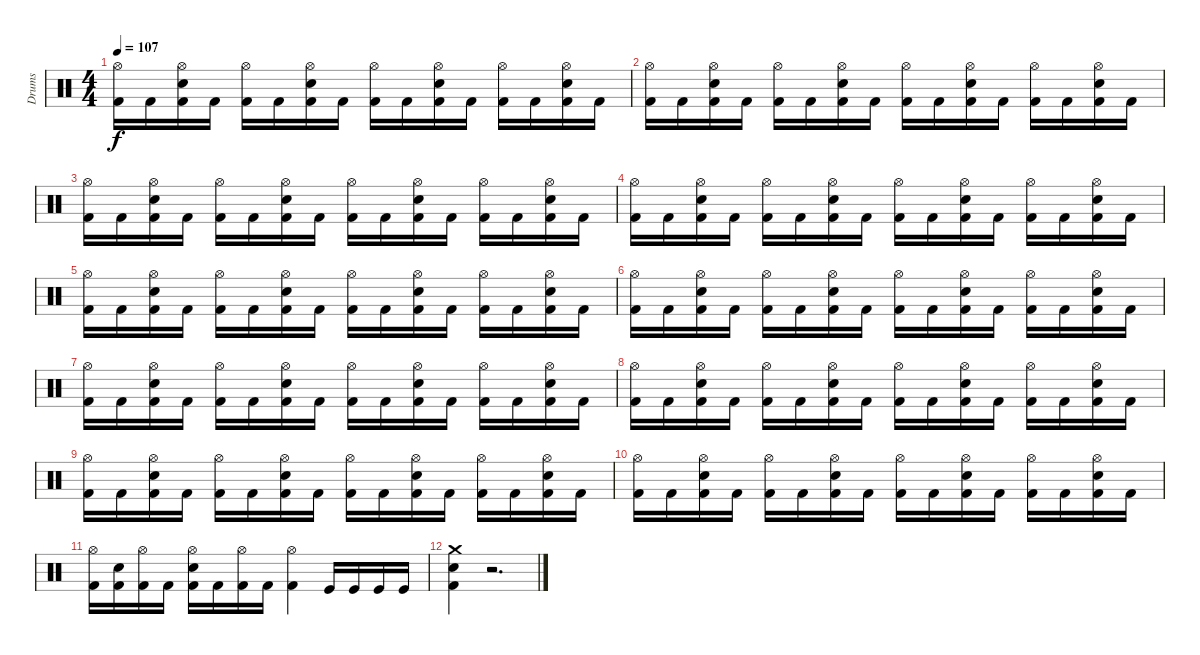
\track ("Drums" "Drums") {instrument percussion}
\staff {score}
\articulation defaults
\ts (4 4)
\tempo 107
\clef neutral
\ks c
("Hi-Hat (open)" "Kick (hit) 2").16{dy f} "Kick (hit) 2".16 ("Hi-Hat (open)" "Snare (hit) 2" "Kick (hit) 2").16 "Kick (hit) 2".16 ("Hi-Hat (open)" "Kick (hit) 2").16 "Kick (hit) 2".16 ("Hi-Hat (open)" "Snare (hit) 2" "Kick (hit) 2").16 "Kick (hit) 2".16 ("Hi-Hat (open)" "Kick (hit) 2").16 "Kick (hit) 2".16 ("Hi-Hat (open)" "Snare (hit) 2" "Kick (hit) 2").16 "Kick (hit) 2".16 ("Hi-Hat (open)" "Kick (hit) 2").16 "Kick (hit) 2".16 ("Hi-Hat (open)" "Snare (hit) 2" "Kick (hit) 2").16 "Kick (hit) 2".16 |
("Hi-Hat (open)" "Kick (hit) 2").16 "Kick (hit) 2".16 ("Hi-Hat (open)" "Snare (hit) 2" "Kick (hit) 2").16 "Kick (hit) 2".16 ("Hi-Hat (open)" "Kick (hit) 2").16 "Kick (hit) 2".16 ("Hi-Hat (open)" "Snare (hit) 2" "Kick (hit) 2").16 "Kick (hit) 2".16 ("Hi-Hat (open)" "Kick (hit) 2").16 "Kick (hit) 2".16 ("Hi-Hat (open)" "Snare (hit) 2" "Kick (hit) 2").16 "Kick (hit) 2".16 ("Hi-Hat (open)" "Kick (hit) 2").16 "Kick (hit) 2".16 ("Hi-Hat (open)" "Snare (hit) 2" "Kick (hit) 2").16 "Kick (hit) 2".16 |
("Hi-Hat (open)" "Kick (hit) 2").16 "Kick (hit) 2".16 ("Hi-Hat (open)" "Snare (hit) 2" "Kick (hit) 2").16 "Kick (hit) 2".16 ("Hi-Hat (open)" "Kick (hit) 2").16 "Kick (hit) 2".16 ("Hi-Hat (open)" "Snare (hit) 2" "Kick (hit) 2").16 "Kick (hit) 2".16 ("Hi-Hat (open)" "Kick (hit) 2").16 "Kick (hit) 2".16 ("Hi-Hat (open)" "Snare (hit) 2" "Kick (hit) 2").16 "Kick (hit) 2".16 ("Hi-Hat (open)" "Kick (hit) 2").16 "Kick (hit) 2".16 ("Hi-Hat (open)" "Snare (hit) 2" "Kick (hit) 2").16 "Kick (hit) 2".16 |
("Hi-Hat (open)" "Kick (hit) 2").16 "Kick (hit) 2".16 ("Hi-Hat (open)" "Snare (hit) 2" "Kick (hit) 2").16 "Kick (hit) 2".16 ("Hi-Hat (open)" "Kick (hit) 2").16 "Kick (hit) 2".16 ("Hi-Hat (open)" "Snare (hit) 2" "Kick (hit) 2").16 "Kick (hit) 2".16 ("Hi-Hat (open)" "Kick (hit) 2").16 "Kick (hit) 2".16 ("Hi-Hat (open)" "Snare (hit) 2" "Kick (hit) 2").16 "Kick (hit) 2".16 ("Hi-Hat (open)" "Kick (hit) 2").16 "Kick (hit) 2".16 ("Hi-Hat (open)" "Snare (hit) 2" "Kick (hit) 2").16 "Kick (hit) 2".16 |
("Hi-Hat (open)" "Kick (hit) 2").16 "Kick (hit) 2".16 ("Hi-Hat (open)" "Snare (hit) 2" "Kick (hit) 2").16 "Kick (hit) 2".16 ("Hi-Hat (open)" "Kick (hit) 2").16 "Kick (hit) 2".16 ("Hi-Hat (open)" "Snare (hit) 2" "Kick (hit) 2").16 "Kick (hit) 2".16 ("Hi-Hat (open)" "Kick (hit) 2").16 "Kick (hit) 2".16 ("Hi-Hat (open)" "Snare (hit) 2" "Kick (hit) 2").16 "Kick (hit) 2".16 ("Hi-Hat (open)" "Kick (hit) 2").16 "Kick (hit) 2".16 ("Hi-Hat (open)" "Snare (hit) 2" "Kick (hit) 2").16 "Kick (hit) 2".16 |
("Hi-Hat (open)" "Kick (hit) 2").16 "Kick (hit) 2".16 ("Hi-Hat (open)" "Snare (hit) 2" "Kick (hit) 2").16 "Kick (hit) 2".16 ("Hi-Hat (open)" "Kick (hit) 2").16 "Kick (hit) 2".16 ("Hi-Hat (open)" "Snare (hit) 2" "Kick (hit) 2").16 "Kick (hit) 2".16 ("Hi-Hat (open)" "Kick (hit) 2").16 "Kick (hit) 2".16 ("Hi-Hat (open)" "Snare (hit) 2" "Kick (hit) 2").16 "Kick (hit) 2".16 ("Hi-Hat (open)" "Kick (hit) 2").16 "Kick (hit) 2".16 ("Hi-Hat (open)" "Snare (hit) 2" "Kick (hit) 2").16 "Kick (hit) 2".16 |
("Hi-Hat (open)" "Kick (hit) 2").16 "Kick (hit) 2".16 ("Hi-Hat (open)" "Snare (hit) 2" "Kick (hit) 2").16 "Kick (hit) 2".16 ("Hi-Hat (open)" "Kick (hit) 2").16 "Kick (hit) 2".16 ("Hi-Hat (open)" "Snare (hit) 2" "Kick (hit) 2").16 "Kick (hit) 2".16 ("Hi-Hat (open)" "Kick (hit) 2").16 "Kick (hit) 2".16 ("Hi-Hat (open)" "Snare (hit) 2" "Kick (hit) 2").16 "Kick (hit) 2".16 ("Hi-Hat (open)" "Kick (hit) 2").16 "Kick (hit) 2".16 ("Hi-Hat (open)" "Snare (hit) 2" "Kick (hit) 2").16 "Kick (hit) 2".16 |
("Hi-Hat (open)" "Kick (hit) 2").16 "Kick (hit) 2".16 ("Hi-Hat (open)" "Snare (hit) 2" "Kick (hit) 2").16 "Kick (hit) 2".16 ("Hi-Hat (open)" "Kick (hit) 2").16 "Kick (hit) 2".16 ("Hi-Hat (open)" "Snare (hit) 2" "Kick (hit) 2").16 "Kick (hit) 2".16 ("Hi-Hat (open)" "Kick (hit) 2").16 "Kick (hit) 2".16 ("Hi-Hat (open)" "Snare (hit) 2" "Kick (hit) 2").16 "Kick (hit) 2".16 ("Hi-Hat (open)" "Kick (hit) 2").16 "Kick (hit) 2".16 ("Hi-Hat (open)" "Snare (hit) 2" "Kick (hit) 2").16 "Kick (hit) 2".16 |
("Hi-Hat (open)" "Kick (hit) 2").16 "Kick (hit) 2".16 ("Hi-Hat (open)" "Snare (hit) 2" "Kick (hit) 2").16 "Kick (hit) 2".16 ("Hi-Hat (open)" "Kick (hit) 2").16 "Kick (hit) 2".16 ("Hi-Hat (open)" "Snare (hit) 2" "Kick (hit) 2").16 "Kick (hit) 2".16 ("Hi-Hat (open)" "Kick (hit) 2").16 "Kick (hit) 2".16 ("Hi-Hat (open)" "Snare (hit) 2" "Kick (hit) 2").16 "Kick (hit) 2".16 ("Hi-Hat (open)" "Kick (hit) 2").16 "Kick (hit) 2".16 ("Hi-Hat (open)" "Snare (hit) 2" "Kick (hit) 2").16 "Kick (hit) 2".16 |
("Hi-Hat (open)" "Kick (hit) 2").16 "Kick (hit) 2".16 ("Hi-Hat (open)" "Snare (hit) 2" "Kick (hit) 2").16 "Kick (hit) 2".16 ("Hi-Hat (open)" "Kick (hit) 2").16 "Kick (hit) 2".16 ("Hi-Hat (open)" "Snare (hit) 2" "Kick (hit) 2").16 "Kick (hit) 2".16 ("Hi-Hat (open)" "Kick (hit) 2").16 "Kick (hit) 2".16 ("Hi-Hat (open)" "Snare (hit) 2" "Kick (hit) 2").16 "Kick (hit) 2".16 ("Hi-Hat (open)" "Kick (hit) 2").16 "Kick (hit) 2".16 ("Hi-Hat (open)" "Snare (hit) 2" "Kick (hit) 2").16 "Kick (hit) 2".16 |
("Hi-Hat (open)" "Kick (hit) 2").16 ("Snare (hit) 2" "Kick (hit) 2").16 ("Hi-Hat (open)" "Kick (hit) 2").16 "Kick (hit) 2".16 ("Hi-Hat (open)" "Snare (hit) 2" "Kick (hit) 2").16 "Kick (hit) 2".16 ("Hi-Hat (open)" "Kick (hit) 2").16 "Kick (hit) 2".16 ("Hi-Hat (open)" "Kick (hit) 2").4 "Kick (hit)".16 "Kick (hit)".16 "Kick (hit)".16 "Kick (hit)".16 |
("Crash medium (hit)" "Snare (hit) 2" "Kick (hit) 2").4 r.2{d}
